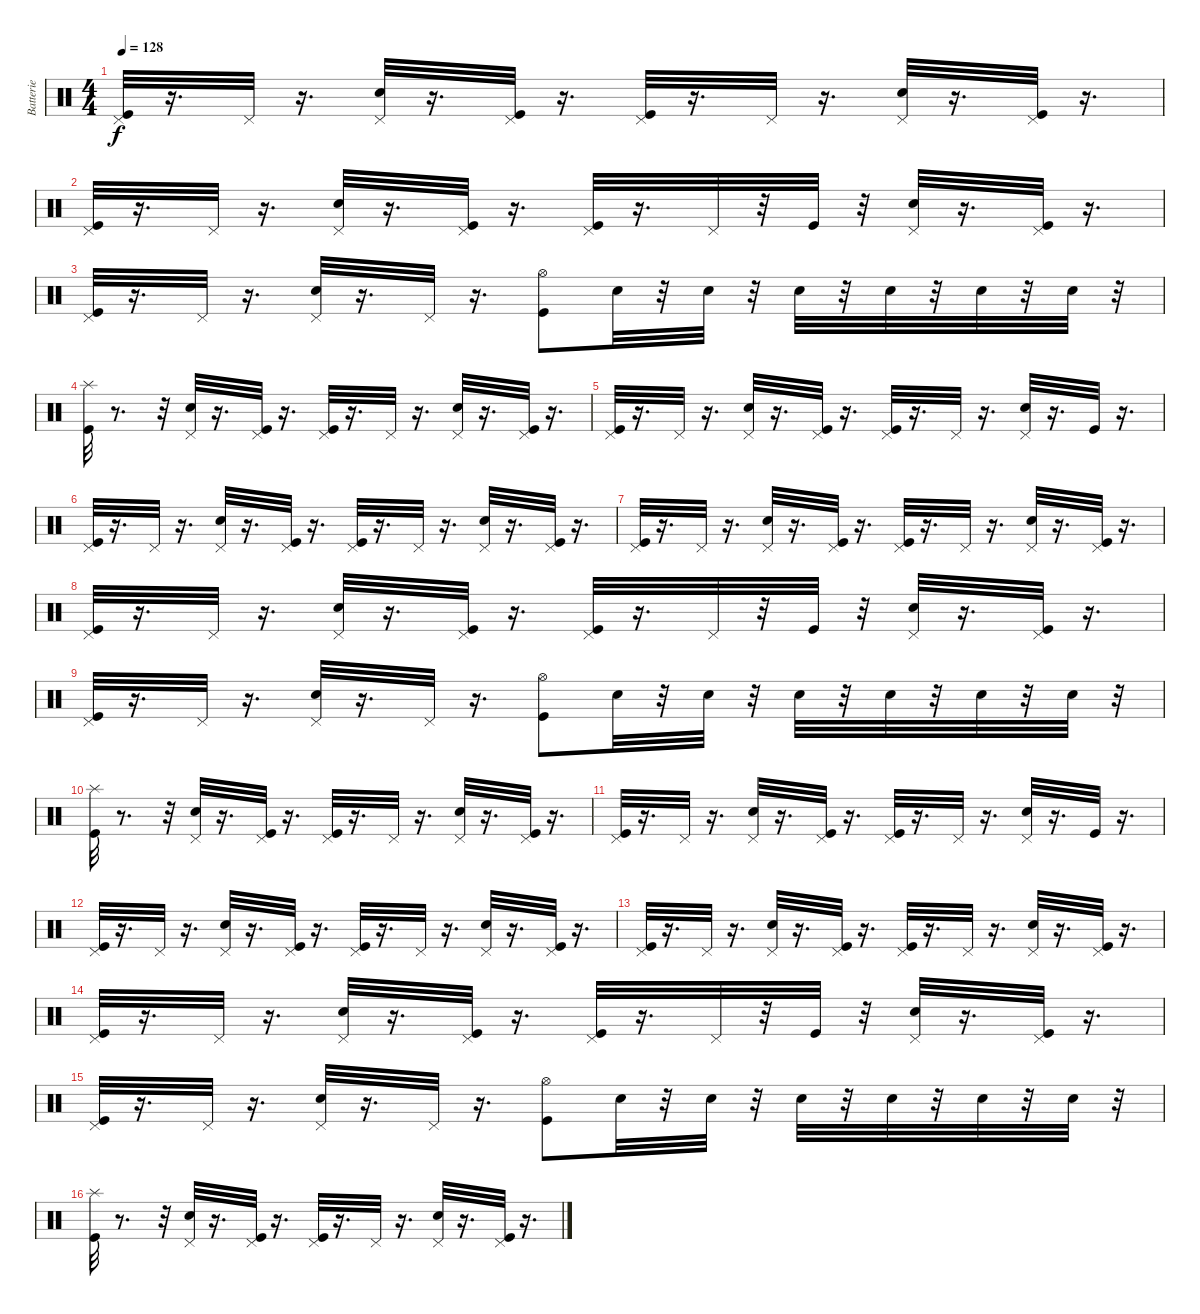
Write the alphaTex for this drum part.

\track ("Batterie" "Batterie") {instrument percussion}
\staff {score}
\articulation defaults
\ts (4 4)
\tempo 128
\clef neutral
\ks c
("Pedal Hi-Hat (hit)" "Kick (hit)").32{dy f} r.16{d} "Pedal Hi-Hat (hit)".32 r.16{d} ("Pedal Hi-Hat (hit)" "Snare (hit) 2").32 r.16{d} ("Pedal Hi-Hat (hit)" "Kick (hit)").32 r.16{d} ("Pedal Hi-Hat (hit)" "Kick (hit)").32 r.16{d} "Pedal Hi-Hat (hit)".32 r.16{d} ("Pedal Hi-Hat (hit)" "Snare (hit) 2").32 r.16{d} ("Pedal Hi-Hat (hit)" "Kick (hit)").32 r.16{d} |
("Pedal Hi-Hat (hit)" "Kick (hit)").32 r.16{d} "Pedal Hi-Hat (hit)".32 r.16{d} ("Pedal Hi-Hat (hit)" "Snare (hit) 2").32 r.16{d} ("Kick (hit)" "Pedal Hi-Hat (hit)").32 r.16{d} ("Pedal Hi-Hat (hit)" "Kick (hit)").32 r.16{d} "Pedal Hi-Hat (hit)".32 r.32 "Kick (hit)".32 r.32 ("Pedal Hi-Hat (hit)" "Snare (hit) 2").32 r.16{d} ("Kick (hit)" "Pedal Hi-Hat (hit)").32 r.16{d} |
("Pedal Hi-Hat (hit)" "Kick (hit)").32 r.16{d} "Pedal Hi-Hat (hit)".32 r.16{d} ("Pedal Hi-Hat (hit)" "Snare (hit) 2").32 r.16{d} "Pedal Hi-Hat (hit)".32 r.16{d} ("Hi-Hat (open)" "Kick (hit)").8 "Snare (hit) 2".32 r.32 "Snare (hit) 2".32 r.32 "Snare (hit) 2".32 r.32 "Snare (hit) 2".32 r.32 "Snare (hit) 2".32 r.32 "Snare (hit) 2".32 r.32 |
("Splash (hit)" "Kick (hit)").32 r.8{d} r.32 ("Pedal Hi-Hat (hit)" "Snare (hit) 2").32 r.16{d} ("Kick (hit)" "Pedal Hi-Hat (hit)").32 r.16{d} ("Pedal Hi-Hat (hit)" "Kick (hit)").32 r.16{d} "Pedal Hi-Hat (hit)".32 r.16{d} ("Pedal Hi-Hat (hit)" "Snare (hit) 2").32 r.16{d} ("Kick (hit)" "Pedal Hi-Hat (hit)").32 r.16{d} |
("Pedal Hi-Hat (hit)" "Kick (hit)").32 r.16{d} "Pedal Hi-Hat (hit)".32 r.16{d} ("Pedal Hi-Hat (hit)" "Snare (hit) 2").32 r.16{d} ("Pedal Hi-Hat (hit)" "Kick (hit)").32 r.16{d} ("Pedal Hi-Hat (hit)" "Kick (hit)").32 r.16{d} "Pedal Hi-Hat (hit)".32 r.16{d} ("Pedal Hi-Hat (hit)" "Snare (hit) 2").32 r.16{d} "Kick (hit)".32 r.16{d} |
("Pedal Hi-Hat (hit)" "Kick (hit)").32 r.16{d} "Pedal Hi-Hat (hit)".32 r.16{d} ("Pedal Hi-Hat (hit)" "Snare (hit) 2").32 r.16{d} ("Kick (hit)" "Pedal Hi-Hat (hit)").32 r.16{d} ("Pedal Hi-Hat (hit)" "Kick (hit)").32 r.16{d} "Pedal Hi-Hat (hit)".32 r.16{d} ("Pedal Hi-Hat (hit)" "Snare (hit) 2").32 r.16{d} ("Kick (hit)" "Pedal Hi-Hat (hit)").32 r.16{d} |
("Pedal Hi-Hat (hit)" "Kick (hit)").32 r.16{d} "Pedal Hi-Hat (hit)".32 r.16{d} ("Pedal Hi-Hat (hit)" "Snare (hit) 2").32 r.16{d} ("Pedal Hi-Hat (hit)" "Kick (hit)").32 r.16{d} ("Pedal Hi-Hat (hit)" "Kick (hit)").32 r.16{d} "Pedal Hi-Hat (hit)".32 r.16{d} ("Pedal Hi-Hat (hit)" "Snare (hit) 2").32 r.16{d} ("Pedal Hi-Hat (hit)" "Kick (hit)").32 r.16{d} |
("Pedal Hi-Hat (hit)" "Kick (hit)").32 r.16{d} "Pedal Hi-Hat (hit)".32 r.16{d} ("Pedal Hi-Hat (hit)" "Snare (hit) 2").32 r.16{d} ("Kick (hit)" "Pedal Hi-Hat (hit)").32 r.16{d} ("Pedal Hi-Hat (hit)" "Kick (hit)").32 r.16{d} "Pedal Hi-Hat (hit)".32 r.32 "Kick (hit)".32 r.32 ("Pedal Hi-Hat (hit)" "Snare (hit) 2").32 r.16{d} ("Kick (hit)" "Pedal Hi-Hat (hit)").32 r.16{d} |
("Pedal Hi-Hat (hit)" "Kick (hit)").32 r.16{d} "Pedal Hi-Hat (hit)".32 r.16{d} ("Pedal Hi-Hat (hit)" "Snare (hit) 2").32 r.16{d} "Pedal Hi-Hat (hit)".32 r.16{d} ("Hi-Hat (open)" "Kick (hit)").8 "Snare (hit) 2".32 r.32 "Snare (hit) 2".32 r.32 "Snare (hit) 2".32 r.32 "Snare (hit) 2".32 r.32 "Snare (hit) 2".32 r.32 "Snare (hit) 2".32 r.32 |
("Splash (hit)" "Kick (hit)").32 r.8{d} r.32 ("Pedal Hi-Hat (hit)" "Snare (hit) 2").32 r.16{d} ("Kick (hit)" "Pedal Hi-Hat (hit)").32 r.16{d} ("Pedal Hi-Hat (hit)" "Kick (hit)").32 r.16{d} "Pedal Hi-Hat (hit)".32 r.16{d} ("Pedal Hi-Hat (hit)" "Snare (hit) 2").32 r.16{d} ("Kick (hit)" "Pedal Hi-Hat (hit)").32 r.16{d} |
("Pedal Hi-Hat (hit)" "Kick (hit)").32 r.16{d} "Pedal Hi-Hat (hit)".32{volume 16} r.16{d} ("Pedal Hi-Hat (hit)" "Snare (hit) 2").32{volume 16} r.16{d} ("Pedal Hi-Hat (hit)" "Kick (hit)").32{volume 15} r.16{d} ("Pedal Hi-Hat (hit)" "Kick (hit)").32{volume 15} r.16{d} "Pedal Hi-Hat (hit)".32{volume 15} r.16{d} ("Pedal Hi-Hat (hit)" "Snare (hit) 2").32{volume 15} r.16{d} "Kick (hit)".32{volume 15} r.16{d} |
("Pedal Hi-Hat (hit)" "Kick (hit)").32{volume 14} r.16{d} "Pedal Hi-Hat (hit)".32{volume 14} r.16{d} ("Pedal Hi-Hat (hit)" "Snare (hit) 2").32{volume 14} r.16{d} ("Kick (hit)" "Pedal Hi-Hat (hit)").32{volume 14} r.16{d} ("Pedal Hi-Hat (hit)" "Kick (hit)").32{volume 14} r.16{d} "Pedal Hi-Hat (hit)".32{volume 14} r.16{d} ("Pedal Hi-Hat (hit)" "Snare (hit) 2").32{volume 13} r.16{d} ("Kick (hit)" "Pedal Hi-Hat (hit)").32{volume 13} r.16{d} |
("Pedal Hi-Hat (hit)" "Kick (hit)").32{volume 13} r.16{d} "Pedal Hi-Hat (hit)".32{volume 13} r.16{d} ("Pedal Hi-Hat (hit)" "Snare (hit) 2").32{volume 13} r.16{d} ("Pedal Hi-Hat (hit)" "Kick (hit)").32{volume 12} r.16{d} ("Pedal Hi-Hat (hit)" "Kick (hit)").32{volume 12} r.16{d} "Pedal Hi-Hat (hit)".32{volume 12} r.16{d} ("Pedal Hi-Hat (hit)" "Snare (hit) 2").32{volume 12} r.16{d} ("Pedal Hi-Hat (hit)" "Kick (hit)").32{volume 12} r.16{d} |
("Pedal Hi-Hat (hit)" "Kick (hit)").32{volume 12} r.16{d} "Pedal Hi-Hat (hit)".32{volume 11} r.16{d} ("Pedal Hi-Hat (hit)" "Snare (hit) 2").32{volume 11} r.16{d} ("Kick (hit)" "Pedal Hi-Hat (hit)").32{volume 11} r.16{d} ("Pedal Hi-Hat (hit)" "Kick (hit)").32{volume 11} r.16{d} "Pedal Hi-Hat (hit)".32{volume 11} r.32 "Kick (hit)".32{volume 11} r.32 ("Pedal Hi-Hat (hit)" "Snare (hit) 2").32{volume 10} r.16{d} ("Kick (hit)" "Pedal Hi-Hat (hit)").32{volume 10} r.16{d} |
("Pedal Hi-Hat (hit)" "Kick (hit)").32{volume 10} r.16{d} "Pedal Hi-Hat (hit)".32{volume 10} r.16{d} ("Pedal Hi-Hat (hit)" "Snare (hit) 2").32{volume 10} r.16{d} "Pedal Hi-Hat (hit)".32{volume 10} r.16{d} ("Hi-Hat (open)" "Kick (hit)").8{volume 10} "Snare (hit) 2".32{volume 9} r.32 "Snare (hit) 2".32{volume 9} r.32 "Snare (hit) 2".32 r.32 "Snare (hit) 2".32{volume 9} r.32 "Snare (hit) 2".32{volume 9} r.32 "Snare (hit) 2".32{volume 9} r.32 |
("Splash (hit)" "Kick (hit)").32 r.8{d} r.32 ("Pedal Hi-Hat (hit)" "Snare (hit) 2").32{volume 8} r.16{d} ("Kick (hit)" "Pedal Hi-Hat (hit)").32{volume 8} r.16{d} ("Pedal Hi-Hat (hit)" "Kick (hit)").32{volume 8} r.16{d} "Pedal Hi-Hat (hit)".32{volume 8} r.16{d} ("Pedal Hi-Hat (hit)" "Snare (hit) 2").32{volume 8} r.16{d} ("Kick (hit)" "Pedal Hi-Hat (hit)").32{volume 8} r.16{d}
